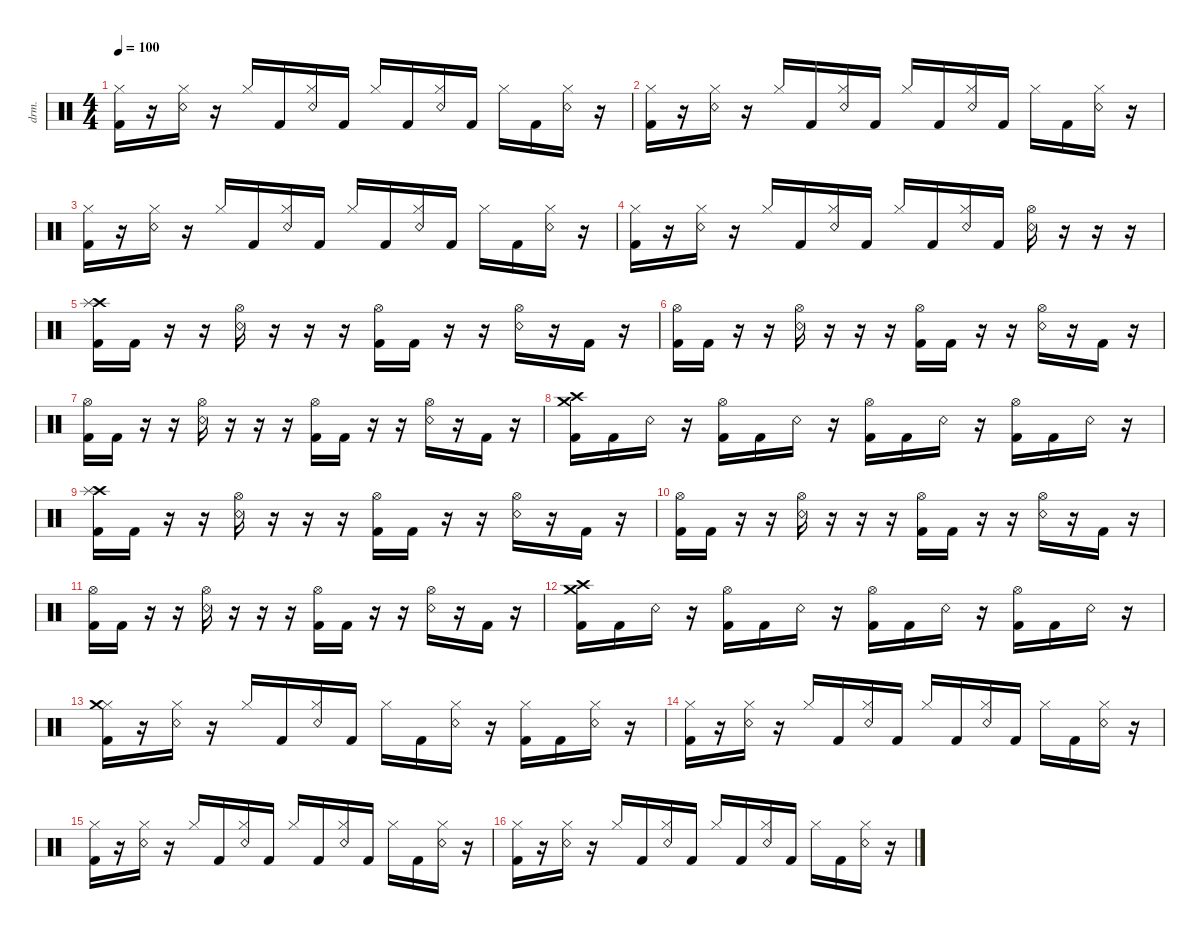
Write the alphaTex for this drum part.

\defaultSystemsLayout 4
\hideDynamics
\bracketExtendMode nobrackets
\otherSystemsTrackNameOrientation horizontal
\track ("Drumkit" "drm.") {instrument percussion}
\staff {score}
\articulation defaults
\ts (4 4)
\tempo 100
\clef neutral
\ks c
("Hi-Hat (closed)" "Kick (hit) 2").16{dy mf beam Down} r.16{beam Down} ("Hi-Hat (closed)" "Snare (rim shot)").16{beam Down} r.16{beam Down} "Hi-Hat (closed)".16{beam Up} "Kick (hit) 2".16{beam Up} ("Hi-Hat (closed)" "Snare (rim shot)").16{beam Up} "Kick (hit) 2".16{beam Up} "Hi-Hat (closed)".16{beam Up} "Kick (hit) 2".16{beam Up} ("Hi-Hat (closed)" "Snare (rim shot)").16{beam Up} "Kick (hit) 2".16{beam Up} "Hi-Hat (closed)".16{beam Down} "Kick (hit) 2".16{beam Down} ("Hi-Hat (closed)" "Snare (rim shot)").16{beam Down} r.16{beam Down} |
("Hi-Hat (closed)" "Kick (hit) 2").16{beam Down} r.16{beam Down} ("Hi-Hat (closed)" "Snare (rim shot)").16{beam Down} r.16{beam Down} "Hi-Hat (closed)".16{beam Up} "Kick (hit) 2".16{beam Up} ("Hi-Hat (closed)" "Snare (rim shot)").16{beam Up} "Kick (hit) 2".16{beam Up} "Hi-Hat (closed)".16{beam Up} "Kick (hit) 2".16{beam Up} ("Hi-Hat (closed)" "Snare (rim shot)").16{beam Up} "Kick (hit) 2".16{beam Up} "Hi-Hat (closed)".16{beam Down} "Kick (hit) 2".16{beam Down} ("Hi-Hat (closed)" "Snare (rim shot)").16{beam Down} r.16{beam Down} |
("Hi-Hat (closed)" "Kick (hit) 2").16{beam Down} r.16{beam Down} ("Hi-Hat (closed)" "Snare (rim shot)").16{beam Down} r.16{beam Down} "Hi-Hat (closed)".16{beam Up} "Kick (hit) 2".16{beam Up} ("Hi-Hat (closed)" "Snare (rim shot)").16{beam Up} "Kick (hit) 2".16{beam Up} "Hi-Hat (closed)".16{beam Up} "Kick (hit) 2".16{beam Up} ("Hi-Hat (closed)" "Snare (rim shot)").16{beam Up} "Kick (hit) 2".16{beam Up} "Hi-Hat (closed)".16{beam Down} "Kick (hit) 2".16{beam Down} ("Hi-Hat (closed)" "Snare (rim shot)").16{beam Down} r.16{beam Down} |
("Hi-Hat (closed)" "Kick (hit) 2").16{beam Down} r.16{beam Down} ("Hi-Hat (closed)" "Snare (rim shot)").16{beam Down} r.16{beam Down} "Hi-Hat (closed)".16{beam Up} "Kick (hit) 2".16{beam Up} ("Hi-Hat (closed)" "Snare (rim shot)").16{beam Up} "Kick (hit) 2".16{beam Up} "Hi-Hat (closed)".16{beam Up} "Kick (hit) 2".16{beam Up} ("Hi-Hat (closed)" "Snare (rim shot)").16{beam Up} "Kick (hit) 2".16{beam Up} ("Snare (rim shot)" "Hi-Hat (open)").16{beam Down} r.16{beam Down} r.16{beam Down} r.16{beam Down} |
("Kick (hit) 2" "Crash high (hit)" "Splash (hit)").16{beam Down} "Kick (hit) 2".16{beam Down} r.16{beam Down} r.16{beam Down} ("Snare (rim shot)" "Hi-Hat (open)").16{beam Down} r.16{beam Down} r.16{beam Down} r.16{beam Down} ("Kick (hit) 2" "Hi-Hat (open)").16{beam Down} "Kick (hit) 2".16{beam Down} r.16{beam Down} r.16{beam Down} ("Snare (rim shot)" "Hi-Hat (open)").16{beam Down} r.16{beam Down} "Kick (hit) 2".16{beam Down} r.16{beam Down} |
("Kick (hit) 2" "Hi-Hat (open)").16{beam Down} "Kick (hit) 2".16{beam Down} r.16{beam Down} r.16{beam Down} ("Snare (rim shot)" "Hi-Hat (open)").16{beam Down} r.16{beam Down} r.16{beam Down} r.16{beam Down} ("Kick (hit) 2" "Hi-Hat (open)").16{beam Down} "Kick (hit) 2".16{beam Down} r.16{beam Down} r.16{beam Down} ("Snare (rim shot)" "Hi-Hat (open)").16{beam Down} r.16{beam Down} "Kick (hit) 2".16{beam Down} r.16{beam Down} |
("Kick (hit) 2" "Hi-Hat (open)").16{beam Down} "Kick (hit) 2".16{beam Down} r.16{beam Down} r.16{beam Down} ("Snare (rim shot)" "Hi-Hat (open)").16{beam Down} r.16{beam Down} r.16{beam Down} r.16{beam Down} ("Kick (hit) 2" "Hi-Hat (open)").16{beam Down} "Kick (hit) 2".16{beam Down} r.16{beam Down} r.16{beam Down} ("Snare (rim shot)" "Hi-Hat (open)").16{beam Down} r.16{beam Down} "Kick (hit) 2".16{beam Down} r.16{beam Down} |
("Kick (hit) 2" "Crash medium (hit)" "Crash high (hit)").16{beam Down} "Kick (hit) 2".16{beam Down} "Snare (rim shot)".16{beam Down} r.16{beam Down} ("Kick (hit) 2" "Hi-Hat (open)").16{beam Down} "Kick (hit) 2".16{beam Down} "Snare (rim shot)".16{beam Down} r.16{beam Down} ("Kick (hit) 2" "Hi-Hat (open)").16{beam Down} "Kick (hit) 2".16{beam Down} "Snare (rim shot)".16{beam Down} r.16{beam Down} ("Kick (hit) 2" "Hi-Hat (open)").16{beam Down} "Kick (hit) 2".16{beam Down} "Snare (rim shot)".16{beam Down} r.16{beam Down} |
("Kick (hit) 2" "Crash high (hit)" "Splash (hit)").16{beam Down} "Kick (hit) 2".16{beam Down} r.16{beam Down} r.16{beam Down} ("Snare (rim shot)" "Hi-Hat (open)").16{beam Down} r.16{beam Down} r.16{beam Down} r.16{beam Down} ("Kick (hit) 2" "Hi-Hat (open)").16{beam Down} "Kick (hit) 2".16{beam Down} r.16{beam Down} r.16{beam Down} ("Snare (rim shot)" "Hi-Hat (open)").16{beam Down} r.16{beam Down} "Kick (hit) 2".16{beam Down} r.16{beam Down} |
("Kick (hit) 2" "Hi-Hat (open)").16{beam Down} "Kick (hit) 2".16{beam Down} r.16{beam Down} r.16{beam Down} ("Snare (rim shot)" "Hi-Hat (open)").16{beam Down} r.16{beam Down} r.16{beam Down} r.16{beam Down} ("Kick (hit) 2" "Hi-Hat (open)").16{beam Down} "Kick (hit) 2".16{beam Down} r.16{beam Down} r.16{beam Down} ("Snare (rim shot)" "Hi-Hat (open)").16{beam Down} r.16{beam Down} "Kick (hit) 2".16{beam Down} r.16{beam Down} |
("Kick (hit) 2" "Hi-Hat (open)").16{beam Down} "Kick (hit) 2".16{beam Down} r.16{beam Down} r.16{beam Down} ("Snare (rim shot)" "Hi-Hat (open)").16{beam Down} r.16{beam Down} r.16{beam Down} r.16{beam Down} ("Kick (hit) 2" "Hi-Hat (open)").16{beam Down} "Kick (hit) 2".16{beam Down} r.16{beam Down} r.16{beam Down} ("Snare (rim shot)" "Hi-Hat (open)").16{beam Down} r.16{beam Down} "Kick (hit) 2".16{beam Down} r.16{beam Down} |
("Kick (hit) 2" "Crash medium (hit)" "Crash high (hit)").16{beam Down} "Kick (hit) 2".16{beam Down} "Snare (rim shot)".16{beam Down} r.16{beam Down} ("Kick (hit) 2" "Hi-Hat (open)").16{beam Down} "Kick (hit) 2".16{beam Down} "Snare (rim shot)".16{beam Down} r.16{beam Down} ("Kick (hit) 2" "Hi-Hat (open)").16{beam Down} "Kick (hit) 2".16{beam Down} "Snare (rim shot)".16{beam Down} r.16{beam Down} ("Kick (hit) 2" "Hi-Hat (open)").16{beam Down} "Kick (hit) 2".16{beam Down} "Snare (rim shot)".16{beam Down} r.16{beam Down} |
("Hi-Hat (closed)" "Kick (hit) 2" "Crash medium (hit)").16{beam Down} r.16{beam Down} ("Hi-Hat (closed)" "Snare (rim shot)").16{beam Down} r.16{beam Down} "Hi-Hat (closed)".16{beam Up} "Kick (hit) 2".16{beam Up} ("Hi-Hat (closed)" "Snare (rim shot)").16{beam Up} "Kick (hit) 2".16{beam Up} "Hi-Hat (closed)".16{beam Down} "Kick (hit) 2".16{beam Down} ("Hi-Hat (closed)" "Snare (rim shot)").16{beam Down} r.16{beam Down} ("Hi-Hat (closed)" "Kick (hit) 2").16{beam Down} "Kick (hit) 2".16{beam Down} ("Hi-Hat (closed)" "Snare (rim shot)").16{beam Down} r.16{beam Down} |
("Hi-Hat (closed)" "Kick (hit) 2").16{beam Down} r.16{beam Down} ("Hi-Hat (closed)" "Snare (rim shot)").16{beam Down} r.16{beam Down} "Hi-Hat (closed)".16{beam Up} "Kick (hit) 2".16{beam Up} ("Hi-Hat (closed)" "Snare (rim shot)").16{beam Up} "Kick (hit) 2".16{beam Up} "Hi-Hat (closed)".16{beam Up} "Kick (hit) 2".16{beam Up} ("Hi-Hat (closed)" "Snare (rim shot)").16{beam Up} "Kick (hit) 2".16{beam Up} "Hi-Hat (closed)".16{beam Down} "Kick (hit) 2".16{beam Down} ("Hi-Hat (closed)" "Snare (rim shot)").16{beam Down} r.16{beam Down} |
("Hi-Hat (closed)" "Kick (hit) 2").16{beam Down} r.16{beam Down} ("Hi-Hat (closed)" "Snare (rim shot)").16{beam Down} r.16{beam Down} "Hi-Hat (closed)".16{beam Up} "Kick (hit) 2".16{beam Up} ("Hi-Hat (closed)" "Snare (rim shot)").16{beam Up} "Kick (hit) 2".16{beam Up} "Hi-Hat (closed)".16{beam Up} "Kick (hit) 2".16{beam Up} ("Hi-Hat (closed)" "Snare (rim shot)").16{beam Up} "Kick (hit) 2".16{beam Up} "Hi-Hat (closed)".16{beam Down} "Kick (hit) 2".16{beam Down} ("Hi-Hat (closed)" "Snare (rim shot)").16{beam Down} r.16{beam Down} |
("Hi-Hat (closed)" "Kick (hit) 2").16{beam Down} r.16{beam Down} ("Hi-Hat (closed)" "Snare (rim shot)").16{beam Down} r.16{beam Down} "Hi-Hat (closed)".16{beam Up} "Kick (hit) 2".16{beam Up} ("Hi-Hat (closed)" "Snare (rim shot)").16{beam Up} "Kick (hit) 2".16{beam Up} "Hi-Hat (closed)".16{beam Up} "Kick (hit) 2".16{beam Up} ("Hi-Hat (closed)" "Snare (rim shot)").16{beam Up} "Kick (hit) 2".16{beam Up} "Hi-Hat (closed)".16{beam Down} "Kick (hit) 2".16{beam Down} ("Hi-Hat (closed)" "Snare (rim shot)").16{beam Down} r.16{beam Down}
